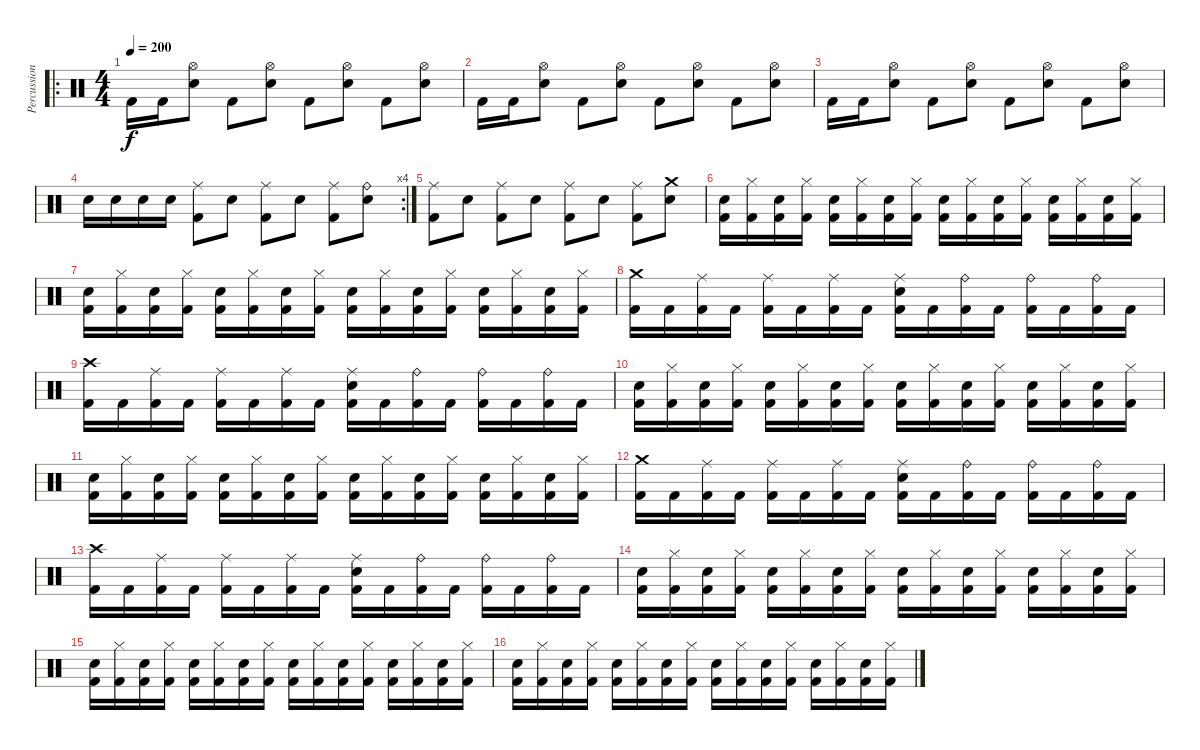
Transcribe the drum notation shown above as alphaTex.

\track ("Percussion" "Percussion") {instrument percussion}
\staff {score}
\articulation defaults
\ro
\ts (4 4)
\tempo 200
\clef neutral
\ks c "Kick (hit) 2".16{dy f} "Kick (hit) 2".16
("Hi-Hat (open)" "Electric Snare (hit)").8 "Kick (hit) 2".8 ("Hi-Hat (open)" "Electric Snare (hit)").8 "Kick (hit) 2".8 ("Hi-Hat (open)" "Electric Snare (hit)").8 "Kick (hit) 2".8 ("Hi-Hat (open)" "Electric Snare (hit)").8 |
"Kick (hit) 2".16 "Kick (hit) 2".16 ("Hi-Hat (open)" "Electric Snare (hit)").8 "Kick (hit) 2".8 ("Hi-Hat (open)" "Electric Snare (hit)").8 "Kick (hit) 2".8 ("Hi-Hat (open)" "Electric Snare (hit)").8 "Kick (hit) 2".8 ("Hi-Hat (open)" "Electric Snare (hit)").8 |
"Kick (hit) 2".16 "Kick (hit) 2".16 ("Hi-Hat (open)" "Electric Snare (hit)").8 "Kick (hit) 2".8 ("Hi-Hat (open)" "Electric Snare (hit)").8 "Kick (hit) 2".8 ("Hi-Hat (open)" "Electric Snare (hit)").8 "Kick (hit) 2".8 ("Hi-Hat (open)" "Electric Snare (hit)").8 |
\rc 4 "Electric Snare (hit)".16 "Electric Snare (hit)".16 "Electric Snare (hit)".16 "Electric Snare (hit)".16
("Ride (middle)" "Kick (hit) 2").8 "Electric Snare (hit)".8 ("Ride (middle)" "Kick (hit) 2").8 "Electric Snare (hit)".8 ("Ride (middle)" "Kick (hit) 2").8 ("Ride (bell)" "Electric Snare (hit)").8 |
("Ride (middle)" "Kick (hit) 2").8 "Electric Snare (hit)".8 ("Ride (middle)" "Kick (hit) 2").8 "Electric Snare (hit)".8 ("Ride (middle)" "Kick (hit) 2").8 "Electric Snare (hit)".8 ("Ride (middle)" "Kick (hit) 2").8 ("Crash medium (hit)" "Electric Snare (hit)").8 |
("Electric Snare (hit)" "Kick (hit) 2").16 ("Hi-Hat (closed)" "Kick (hit) 2").16 ("Electric Snare (hit)" "Kick (hit) 2").16 ("Hi-Hat (closed)" "Kick (hit) 2").16 ("Electric Snare (hit)" "Kick (hit) 2").16 ("Hi-Hat (closed)" "Kick (hit) 2").16 ("Electric Snare (hit)" "Kick (hit) 2").16 ("Hi-Hat (closed)" "Kick (hit) 2").16 ("Electric Snare (hit)" "Kick (hit) 2").16 ("Hi-Hat (closed)" "Kick (hit) 2").16 ("Electric Snare (hit)" "Kick (hit) 2").16 ("Hi-Hat (closed)" "Kick (hit) 2").16 ("Electric Snare (hit)" "Kick (hit) 2").16 ("Hi-Hat (closed)" "Kick (hit) 2").16 ("Electric Snare (hit)" "Kick (hit) 2").16 ("Hi-Hat (closed)" "Kick (hit) 2").16 |
("Electric Snare (hit)" "Kick (hit) 2").16 ("Hi-Hat (closed)" "Kick (hit) 2").16 ("Electric Snare (hit)" "Kick (hit) 2").16 ("Hi-Hat (closed)" "Kick (hit) 2").16 ("Electric Snare (hit)" "Kick (hit) 2").16 ("Hi-Hat (closed)" "Kick (hit) 2").16 ("Electric Snare (hit)" "Kick (hit) 2").16 ("Hi-Hat (closed)" "Kick (hit) 2").16 ("Electric Snare (hit)" "Kick (hit) 2").16 ("Hi-Hat (closed)" "Kick (hit) 2").16 ("Electric Snare (hit)" "Kick (hit) 2").16 ("Hi-Hat (closed)" "Kick (hit) 2").16 ("Electric Snare (hit)" "Kick (hit) 2").16 ("Hi-Hat (closed)" "Kick (hit) 2").16 ("Electric Snare (hit)" "Kick (hit) 2").16 ("Hi-Hat (closed)" "Kick (hit) 2").16 |
("Crash medium (hit)" "Kick (hit) 2").16 "Kick (hit) 2".16 ("Ride (middle)" "Kick (hit) 2").16 "Kick (hit) 2".16 ("Ride (middle)" "Kick (hit) 2").16 "Kick (hit) 2".16 ("Ride (middle)" "Kick (hit) 2").16 "Kick (hit) 2".16 ("Ride (middle)" "Electric Snare (hit)" "Kick (hit) 2").16 "Kick (hit) 2".16 ("Ride (bell)" "Kick (hit) 2").16 "Kick (hit) 2".16 ("Ride (bell)" "Kick (hit) 2").16 "Kick (hit) 2".16 ("Ride (bell)" "Kick (hit) 2").16 "Kick (hit) 2".16 |
("Crash high (hit)" "Kick (hit) 2").16 "Kick (hit) 2".16 ("Ride (middle)" "Kick (hit) 2").16 "Kick (hit) 2".16 ("Ride (middle)" "Kick (hit) 2").16 "Kick (hit) 2".16 ("Ride (middle)" "Kick (hit) 2").16 "Kick (hit) 2".16 ("Ride (middle)" "Electric Snare (hit)" "Kick (hit) 2").16 "Kick (hit) 2".16 ("Ride (bell)" "Kick (hit) 2").16 "Kick (hit) 2".16 ("Ride (bell)" "Kick (hit) 2").16 "Kick (hit) 2".16 ("Ride (bell)" "Kick (hit) 2").16 "Kick (hit) 2".16 |
("Electric Snare (hit)" "Kick (hit) 2").16 ("Hi-Hat (closed)" "Kick (hit) 2").16 ("Electric Snare (hit)" "Kick (hit) 2").16 ("Hi-Hat (closed)" "Kick (hit) 2").16 ("Electric Snare (hit)" "Kick (hit) 2").16 ("Hi-Hat (closed)" "Kick (hit) 2").16 ("Electric Snare (hit)" "Kick (hit) 2").16 ("Hi-Hat (closed)" "Kick (hit) 2").16 ("Electric Snare (hit)" "Kick (hit) 2").16 ("Hi-Hat (closed)" "Kick (hit) 2").16 ("Electric Snare (hit)" "Kick (hit) 2").16 ("Hi-Hat (closed)" "Kick (hit) 2").16 ("Electric Snare (hit)" "Kick (hit) 2").16 ("Hi-Hat (closed)" "Kick (hit) 2").16 ("Electric Snare (hit)" "Kick (hit) 2").16 ("Hi-Hat (closed)" "Kick (hit) 2").16 |
("Electric Snare (hit)" "Kick (hit) 2").16 ("Hi-Hat (closed)" "Kick (hit) 2").16 ("Electric Snare (hit)" "Kick (hit) 2").16 ("Hi-Hat (closed)" "Kick (hit) 2").16 ("Electric Snare (hit)" "Kick (hit) 2").16 ("Hi-Hat (closed)" "Kick (hit) 2").16 ("Electric Snare (hit)" "Kick (hit) 2").16 ("Hi-Hat (closed)" "Kick (hit) 2").16 ("Electric Snare (hit)" "Kick (hit) 2").16 ("Hi-Hat (closed)" "Kick (hit) 2").16 ("Electric Snare (hit)" "Kick (hit) 2").16 ("Hi-Hat (closed)" "Kick (hit) 2").16 ("Electric Snare (hit)" "Kick (hit) 2").16 ("Hi-Hat (closed)" "Kick (hit) 2").16 ("Electric Snare (hit)" "Kick (hit) 2").16 ("Hi-Hat (closed)" "Kick (hit) 2").16 |
("Crash medium (hit)" "Kick (hit) 2").16 "Kick (hit) 2".16 ("Ride (middle)" "Kick (hit) 2").16 "Kick (hit) 2".16 ("Ride (middle)" "Kick (hit) 2").16 "Kick (hit) 2".16 ("Ride (middle)" "Kick (hit) 2").16 "Kick (hit) 2".16 ("Ride (middle)" "Electric Snare (hit)" "Kick (hit) 2").16 "Kick (hit) 2".16 ("Ride (bell)" "Kick (hit) 2").16 "Kick (hit) 2".16 ("Ride (bell)" "Kick (hit) 2").16 "Kick (hit) 2".16 ("Ride (bell)" "Kick (hit) 2").16 "Kick (hit) 2".16 |
("Crash high (hit)" "Kick (hit) 2").16 "Kick (hit) 2".16 ("Ride (middle)" "Kick (hit) 2").16 "Kick (hit) 2".16 ("Ride (middle)" "Kick (hit) 2").16 "Kick (hit) 2".16 ("Ride (middle)" "Kick (hit) 2").16 "Kick (hit) 2".16 ("Ride (middle)" "Electric Snare (hit)" "Kick (hit) 2").16 "Kick (hit) 2".16 ("Ride (bell)" "Kick (hit) 2").16 "Kick (hit) 2".16 ("Ride (bell)" "Kick (hit) 2").16 "Kick (hit) 2".16 ("Ride (bell)" "Kick (hit) 2").16 "Kick (hit) 2".16 |
("Electric Snare (hit)" "Kick (hit) 2").16 ("Hi-Hat (closed)" "Kick (hit) 2").16 ("Electric Snare (hit)" "Kick (hit) 2").16 ("Hi-Hat (closed)" "Kick (hit) 2").16 ("Electric Snare (hit)" "Kick (hit) 2").16 ("Hi-Hat (closed)" "Kick (hit) 2").16 ("Electric Snare (hit)" "Kick (hit) 2").16 ("Hi-Hat (closed)" "Kick (hit) 2").16 ("Electric Snare (hit)" "Kick (hit) 2").16 ("Hi-Hat (closed)" "Kick (hit) 2").16 ("Electric Snare (hit)" "Kick (hit) 2").16 ("Hi-Hat (closed)" "Kick (hit) 2").16 ("Electric Snare (hit)" "Kick (hit) 2").16 ("Hi-Hat (closed)" "Kick (hit) 2").16 ("Electric Snare (hit)" "Kick (hit) 2").16 ("Hi-Hat (closed)" "Kick (hit) 2").16 |
("Electric Snare (hit)" "Kick (hit) 2").16 ("Hi-Hat (closed)" "Kick (hit) 2").16 ("Electric Snare (hit)" "Kick (hit) 2").16 ("Hi-Hat (closed)" "Kick (hit) 2").16 ("Electric Snare (hit)" "Kick (hit) 2").16 ("Hi-Hat (closed)" "Kick (hit) 2").16 ("Electric Snare (hit)" "Kick (hit) 2").16 ("Hi-Hat (closed)" "Kick (hit) 2").16 ("Electric Snare (hit)" "Kick (hit) 2").16 ("Hi-Hat (closed)" "Kick (hit) 2").16 ("Electric Snare (hit)" "Kick (hit) 2").16 ("Hi-Hat (closed)" "Kick (hit) 2").16 ("Electric Snare (hit)" "Kick (hit) 2").16 ("Hi-Hat (closed)" "Kick (hit) 2").16 ("Electric Snare (hit)" "Kick (hit) 2").16 ("Hi-Hat (closed)" "Kick (hit) 2").16 |
("Electric Snare (hit)" "Kick (hit) 2").16 ("Hi-Hat (closed)" "Kick (hit) 2").16 ("Electric Snare (hit)" "Kick (hit) 2").16 ("Hi-Hat (closed)" "Kick (hit) 2").16 ("Electric Snare (hit)" "Kick (hit) 2").16 ("Hi-Hat (closed)" "Kick (hit) 2").16 ("Electric Snare (hit)" "Kick (hit) 2").16 ("Hi-Hat (closed)" "Kick (hit) 2").16 ("Electric Snare (hit)" "Kick (hit) 2").16 ("Hi-Hat (closed)" "Kick (hit) 2").16 ("Electric Snare (hit)" "Kick (hit) 2").16 ("Hi-Hat (closed)" "Kick (hit) 2").16 ("Electric Snare (hit)" "Kick (hit) 2").16 ("Hi-Hat (closed)" "Kick (hit) 2").16 ("Electric Snare (hit)" "Kick (hit) 2").16 ("Hi-Hat (closed)" "Kick (hit) 2").16
